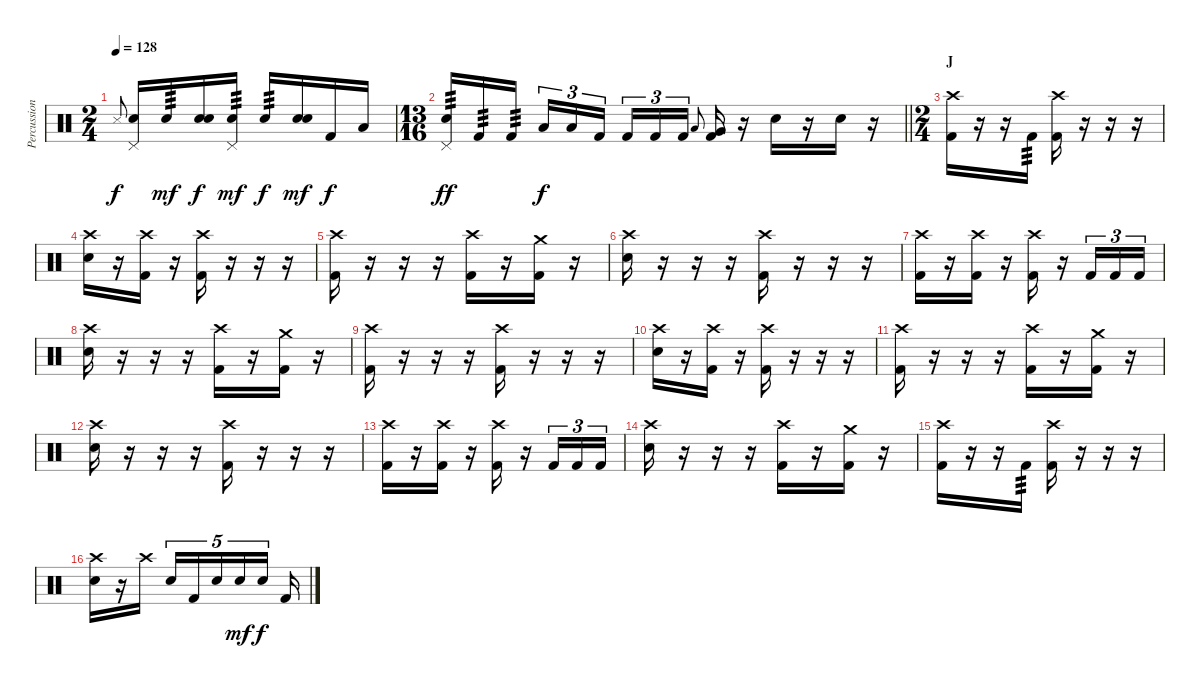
\track ("Percussion" "Percussion") {instrument percussion}
\staff {score}
\articulation defaults
\ts (2 4)
\tempo 128
\clef neutral
\ks c "Metronome (hit)".8{gr onbeat dy f}
("Pedal Hi-Hat (hit)" "Snare (hit) 2").16 "Snare (hit) 2".16{tp 3 dy mf} ("Snare (hit)" "Snare (hit) 2").16{dy f} ("Pedal Hi-Hat (hit)" "Snare (hit) 2").16{tp 3 dy mf} "Snare (hit) 2".16{tp 3 dy f} ("Snare (hit)" "Snare (hit) 2").16{dy mf} "Kick (hit) 2".16{dy f} "Low Floor Tom (hit)".16 |
\ts (13 16)
\barLineRight lightlight
("Pedal Hi-Hat (hit)" "Snare (hit) 2").16{tp 3 dy ff} "Kick (hit) 2".16{tp 3} "Kick (hit) 2".16{tp 3} "Low Tom (hit)".16{tu (3 2) dy f} "Low Tom (hit)".16{tu (3 2)} "Kick (hit) 2".16{tu (3 2)} "Kick (hit) 2".16{tu (3 2)} "Kick (hit) 2".16{tu (3 2)} "Kick (hit) 2".16{tu (3 2)} "Low Tom (hit)".8{gr onbeat} ("Very Low Tom (hit)" "Kick (hit) 2").16 r.16 "Snare (hit)".16 r.16 "Snare (hit)".16 r.16 |
\ts (2 4)
\section ("" "J")
("Crash high (hit)" "Kick (hit) 2").16 r.16 r.16 "Kick (hit) 2".16{tp 3} ("Crash high (hit)" "Kick (hit) 2").16 r.16 r.16 r.16 |
("Crash high (hit)" "Snare (hit) 2").16 r.16 ("Crash high (hit)" "Kick (hit) 2").16 r.16 ("Crash high (hit)" "Kick (hit) 2").16 r.16 r.16 r.16 |
("Crash high (hit)" "Kick (hit) 2").16 r.16 r.16 r.16 ("Crash high (hit)" "Kick (hit) 2").16 r.16 ("Crash medium (hit)" "Kick (hit) 2").16 r.16 |
("Crash high (hit)" "Snare (hit) 2").16 r.16 r.16 r.16 ("Crash high (hit)" "Kick (hit) 2").16 r.16 r.16 r.16 |
("Crash high (hit)" "Kick (hit) 2").16 r.16 ("Crash high (hit)" "Kick (hit) 2").16 r.16 ("Crash high (hit)" "Kick (hit) 2").16 r.16 "Kick (hit) 2".16{tu (3 2)} "Kick (hit) 2".16{tu (3 2)} "Kick (hit) 2".16{tu (3 2)} |
("Crash high (hit)" "Snare (hit) 2").16 r.16 r.16 r.16 ("Crash high (hit)" "Kick (hit) 2").16 r.16 ("Crash medium (hit)" "Kick (hit) 2").16 r.16 |
("Crash high (hit)" "Kick (hit) 2").16 r.16 r.16 r.16 ("Crash high (hit)" "Kick (hit) 2").16 r.16 r.16 r.16 |
("Crash high (hit)" "Snare (hit) 2").16 r.16 ("Crash high (hit)" "Kick (hit) 2").16 r.16 ("Crash high (hit)" "Kick (hit) 2").16 r.16 r.16 r.16 |
("Crash high (hit)" "Kick (hit) 2").16 r.16 r.16 r.16 ("Crash high (hit)" "Kick (hit) 2").16 r.16 ("Crash medium (hit)" "Kick (hit) 2").16 r.16 |
("Crash high (hit)" "Snare (hit) 2").16 r.16 r.16 r.16 ("Crash high (hit)" "Kick (hit) 2").16 r.16 r.16 r.16 |
("Crash high (hit)" "Kick (hit) 2").16 r.16 ("Crash high (hit)" "Kick (hit) 2").16 r.16 ("Crash high (hit)" "Kick (hit) 2").16 r.16 "Kick (hit) 2".16{tu (3 2)} "Kick (hit) 2".16{tu (3 2)} "Kick (hit) 2".16{tu (3 2)} |
("Crash high (hit)" "Snare (hit) 2").16 r.16 r.16 r.16 ("Crash high (hit)" "Kick (hit) 2").16 r.16 ("Crash medium (hit)" "Kick (hit) 2").16 r.16 |
("Crash high (hit)" "Kick (hit) 2").16 r.16 r.16 "Kick (hit) 2".16{tp 3} ("Crash high (hit)" "Kick (hit) 2").16 r.16 r.16 r.16 |
("Crash high (hit)" "Snare (hit) 2").16 r.16 "Crash high (hit)".16{beam splitsecondary} "Snare (hit) 2".16{tu (5 4)} "Kick (hit) 2".16{tu (5 4)} "Snare (hit) 2".16{tu (5 4)} "Snare (hit) 2".16{tu (5 4) dy mf} "Snare (hit) 2".16{tu (5 4) dy f beam splitsecondary} "Kick (hit) 2".16
